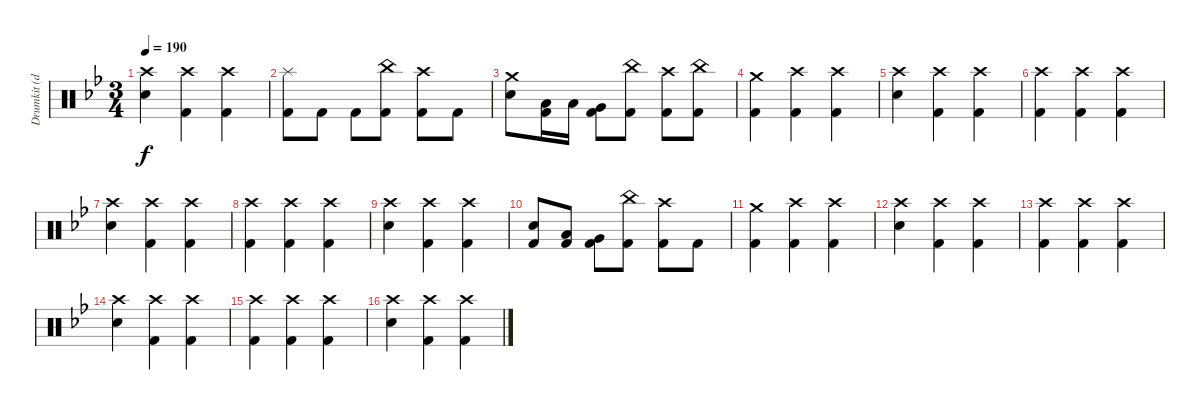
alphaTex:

\track ("Drumkit (don't unmute)" "Drumkit (d") {instrument percussion}
\staff {score}
\articulation defaults
\ts (3 4)
\tempo 190
\clef neutral
\ks bb
("Snare (hit) 2" "Crash high (hit)").4{dy f} ("Kick (hit) 2" "Crash high (hit)").4 ("Kick (hit) 2" "Crash high (hit)").4 |
("Kick (hit) 2" "Splash (hit)").8 "Kick (hit) 2".8 "Kick (hit) 2".8 ("Kick (hit) 2" "China (hit)").8 ("Kick (hit) 2" "Crash high (hit)").8 "Kick (hit) 2".8 |
("Snare (hit) 2" "Crash medium (hit)").8 ("Kick (hit) 2" "Low Tom (hit)").16 "Low Tom (hit)".16 ("Kick (hit) 2" "Very Low Tom (hit)").8 ("Kick (hit) 2" "China (hit)").8 ("Kick (hit) 2" "Crash high (hit)").8 ("Kick (hit) 2" "China (hit)").8 |
("Kick (hit) 2" "Crash medium (hit)").4 ("Kick (hit) 2" "Crash high (hit)").4 ("Kick (hit) 2" "Crash high (hit)").4 |
("Snare (hit) 2" "Crash high (hit)").4 ("Kick (hit) 2" "Crash high (hit)").4 ("Kick (hit) 2" "Crash high (hit)").4 |
("Kick (hit) 2" "Crash high (hit)").4 ("Kick (hit) 2" "Crash high (hit)").4 ("Kick (hit) 2" "Crash high (hit)").4 |
("Snare (hit) 2" "Crash high (hit)").4 ("Kick (hit) 2" "Crash high (hit)").4 ("Kick (hit) 2" "Crash high (hit)").4 |
("Kick (hit) 2" "Crash high (hit)").4 ("Kick (hit) 2" "Crash high (hit)").4 ("Kick (hit) 2" "Crash high (hit)").4 |
("Snare (hit) 2" "Crash high (hit)").4 ("Kick (hit) 2" "Crash high (hit)").4 ("Kick (hit) 2" "Crash high (hit)").4 |
("Snare (hit) 2" "Kick (hit) 2").8 ("Kick (hit) 2" "Low Tom (hit)").8 ("Kick (hit) 2" "Very Low Tom (hit)").8 ("Kick (hit) 2" "China (hit)").8 ("Kick (hit) 2" "Crash high (hit)").8 "Kick (hit) 2".8 |
("Kick (hit) 2" "Crash medium (hit)").4 ("Kick (hit) 2" "Crash high (hit)").4 ("Kick (hit) 2" "Crash high (hit)").4 |
("Snare (hit) 2" "Crash high (hit)").4 ("Kick (hit) 2" "Crash high (hit)").4 ("Kick (hit) 2" "Crash high (hit)").4 |
("Kick (hit) 2" "Crash high (hit)").4 ("Kick (hit) 2" "Crash high (hit)").4 ("Kick (hit) 2" "Crash high (hit)").4 |
("Snare (hit) 2" "Crash high (hit)").4 ("Kick (hit) 2" "Crash high (hit)").4 ("Kick (hit) 2" "Crash high (hit)").4 |
("Kick (hit) 2" "Crash high (hit)").4 ("Kick (hit) 2" "Crash high (hit)").4 ("Kick (hit) 2" "Crash high (hit)").4 |
("Snare (hit) 2" "Crash high (hit)").4 ("Kick (hit) 2" "Crash high (hit)").4 ("Kick (hit) 2" "Crash high (hit)").4
